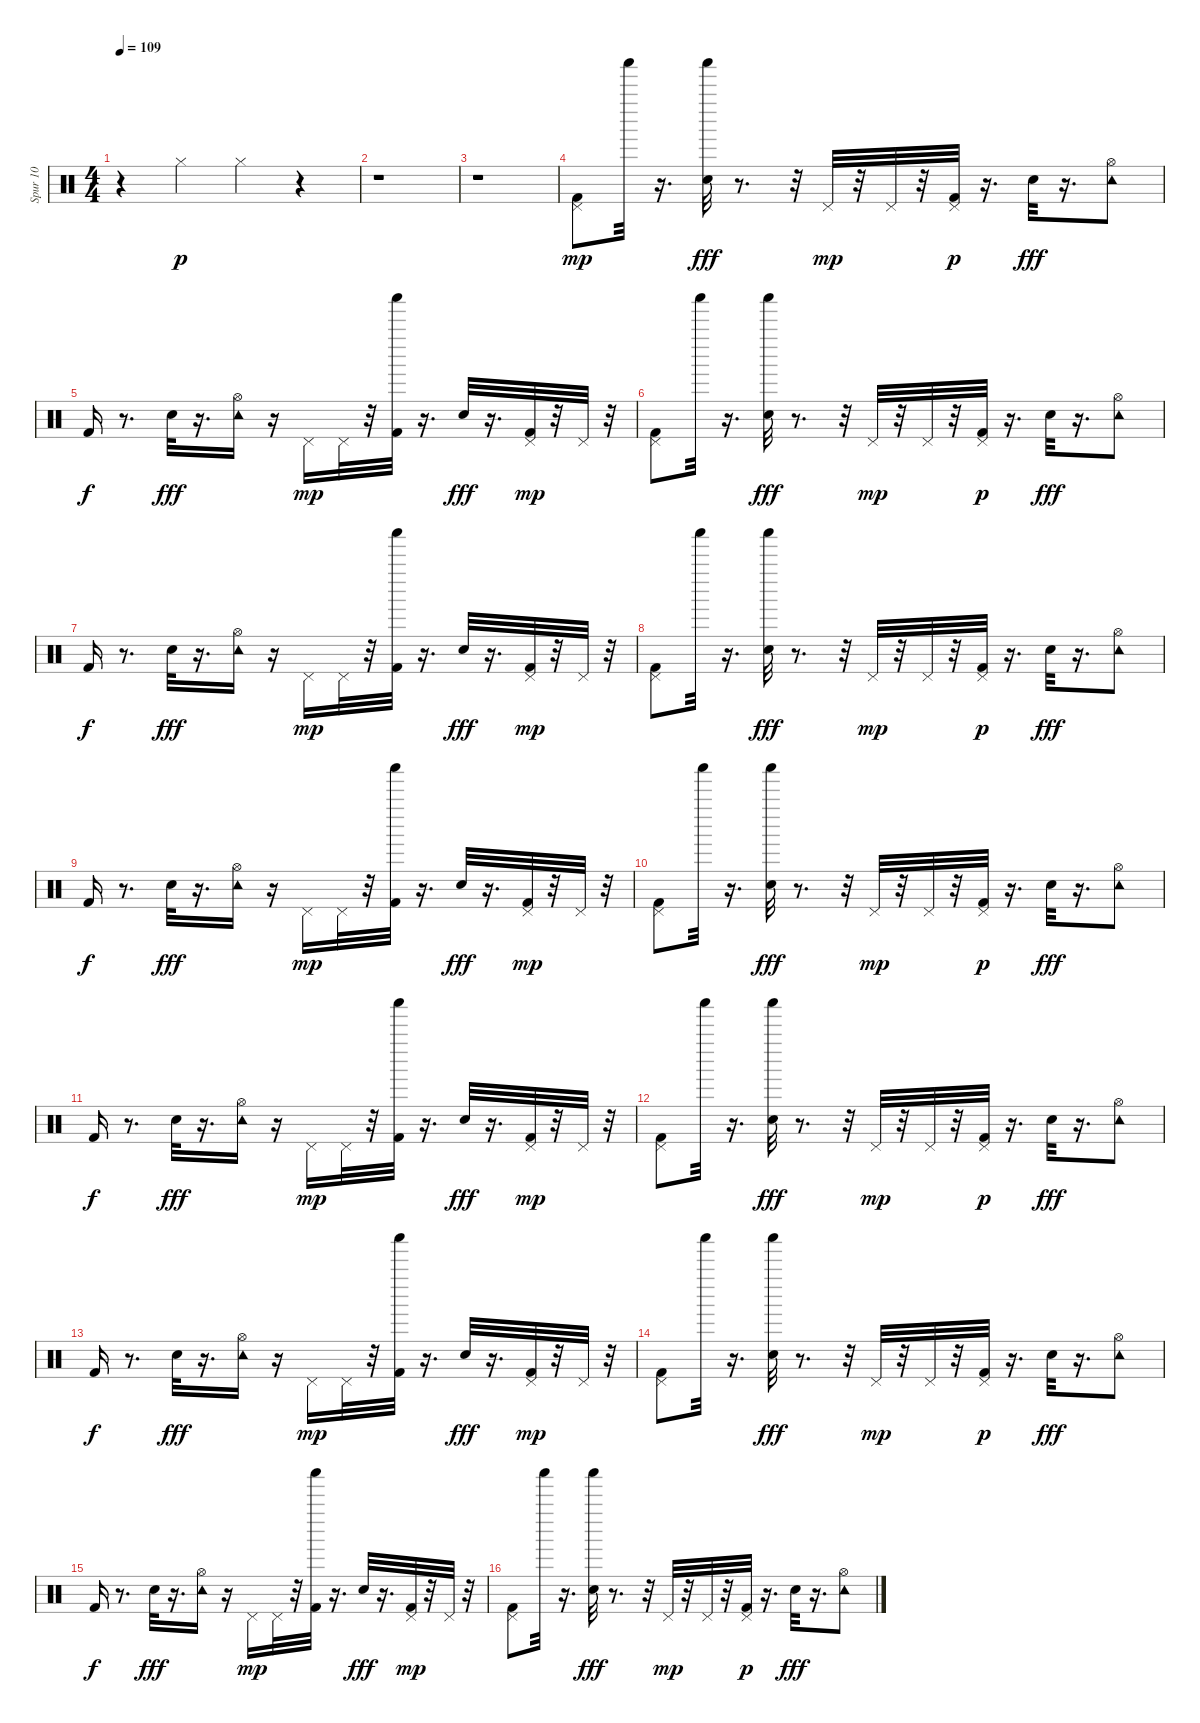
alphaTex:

\track ("Spur 10" "Spur 10") {instrument percussion}
\staff {score}
\articulation defaults
\ts (4 4)
\tempo 109
\clef neutral
\ks c
r.4{dy p} "Hi-Hat (closed)".4{volume 14} "Hi-Hat (closed)".4 r.4 |
r.1 |
r.1 |
("Pedal Hi-Hat (hit)" "Kick (hit) 2").8{dy mp} "Shaker (hit)".32 r.16{d} ("Shaker (hit)" "Electric Snare (hit)").32{dy fff} r.8{d} r.32 "Pedal Hi-Hat (hit)".32{dy mp} r.32 "Pedal Hi-Hat (hit)".32 r.32 ("Pedal Hi-Hat (hit)" "Kick (hit) 2").32{dy p} r.16{d} "Electric Snare (hit)".32{dy fff} r.16{d} ("Hi-Hat (open)" "Tambourine (hit)").8 |
"Kick (hit) 2".16{dy f} r.8{d} "Electric Snare (hit)".32{dy fff} r.16{d} ("Hi-Hat (open)" "Tambourine (hit)").16 r.16 "Pedal Hi-Hat (hit)".16{dy mp} "Pedal Hi-Hat (hit)".32 r.32 ("Shaker (hit)" "Kick (hit) 2").32 r.16{d} "Electric Snare (hit)".32{dy fff} r.16{d} ("Pedal Hi-Hat (hit)" "Kick (hit) 2").32{dy mp} r.32 "Pedal Hi-Hat (hit)".32 r.32 |
("Pedal Hi-Hat (hit)" "Kick (hit) 2").8 "Shaker (hit)".32 r.16{d} ("Shaker (hit)" "Electric Snare (hit)").32{dy fff} r.8{d} r.32 "Pedal Hi-Hat (hit)".32{dy mp} r.32 "Pedal Hi-Hat (hit)".32 r.32 ("Pedal Hi-Hat (hit)" "Kick (hit) 2").32{dy p} r.16{d} "Electric Snare (hit)".32{dy fff} r.16{d} ("Hi-Hat (open)" "Tambourine (hit)").8 |
"Kick (hit) 2".16{dy f} r.8{d} "Electric Snare (hit)".32{dy fff} r.16{d} ("Hi-Hat (open)" "Tambourine (hit)").16 r.16 "Pedal Hi-Hat (hit)".16{dy mp} "Pedal Hi-Hat (hit)".32 r.32 ("Shaker (hit)" "Kick (hit) 2").32 r.16{d} "Electric Snare (hit)".32{dy fff} r.16{d} ("Pedal Hi-Hat (hit)" "Kick (hit) 2").32{dy mp} r.32 "Pedal Hi-Hat (hit)".32 r.32 |
("Pedal Hi-Hat (hit)" "Kick (hit) 2").8 "Shaker (hit)".32 r.16{d} ("Shaker (hit)" "Electric Snare (hit)").32{dy fff} r.8{d} r.32 "Pedal Hi-Hat (hit)".32{dy mp} r.32 "Pedal Hi-Hat (hit)".32 r.32 ("Pedal Hi-Hat (hit)" "Kick (hit) 2").32{dy p} r.16{d} "Electric Snare (hit)".32{dy fff} r.16{d} ("Hi-Hat (open)" "Tambourine (hit)").8 |
"Kick (hit) 2".16{dy f} r.8{d} "Electric Snare (hit)".32{dy fff} r.16{d} ("Hi-Hat (open)" "Tambourine (hit)").16 r.16 "Pedal Hi-Hat (hit)".16{dy mp} "Pedal Hi-Hat (hit)".32 r.32 ("Shaker (hit)" "Kick (hit) 2").32 r.16{d} "Electric Snare (hit)".32{dy fff} r.16{d} ("Pedal Hi-Hat (hit)" "Kick (hit) 2").32{dy mp} r.32 "Pedal Hi-Hat (hit)".32 r.32 |
("Pedal Hi-Hat (hit)" "Kick (hit) 2").8 "Shaker (hit)".32 r.16{d} ("Shaker (hit)" "Electric Snare (hit)").32{dy fff} r.8{d} r.32 "Pedal Hi-Hat (hit)".32{dy mp} r.32 "Pedal Hi-Hat (hit)".32 r.32 ("Pedal Hi-Hat (hit)" "Kick (hit) 2").32{dy p} r.16{d} "Electric Snare (hit)".32{dy fff} r.16{d} ("Hi-Hat (open)" "Tambourine (hit)").8 |
"Kick (hit) 2".16{dy f} r.8{d} "Electric Snare (hit)".32{dy fff} r.16{d} ("Hi-Hat (open)" "Tambourine (hit)").16 r.16 "Pedal Hi-Hat (hit)".16{dy mp} "Pedal Hi-Hat (hit)".32 r.32 ("Shaker (hit)" "Kick (hit) 2").32 r.16{d} "Electric Snare (hit)".32{dy fff} r.16{d} ("Pedal Hi-Hat (hit)" "Kick (hit) 2").32{dy mp} r.32 "Pedal Hi-Hat (hit)".32 r.32 |
("Pedal Hi-Hat (hit)" "Kick (hit) 2").8 "Shaker (hit)".32 r.16{d} ("Shaker (hit)" "Electric Snare (hit)").32{dy fff} r.8{d} r.32 "Pedal Hi-Hat (hit)".32{dy mp} r.32 "Pedal Hi-Hat (hit)".32 r.32 ("Pedal Hi-Hat (hit)" "Kick (hit) 2").32{dy p} r.16{d} "Electric Snare (hit)".32{dy fff} r.16{d} ("Hi-Hat (open)" "Tambourine (hit)").8 |
"Kick (hit) 2".16{dy f} r.8{d} "Electric Snare (hit)".32{dy fff} r.16{d} ("Hi-Hat (open)" "Tambourine (hit)").16 r.16 "Pedal Hi-Hat (hit)".16{dy mp} "Pedal Hi-Hat (hit)".32 r.32 ("Shaker (hit)" "Kick (hit) 2").32 r.16{d} "Electric Snare (hit)".32{dy fff} r.16{d} ("Pedal Hi-Hat (hit)" "Kick (hit) 2").32{dy mp} r.32 "Pedal Hi-Hat (hit)".32 r.32 |
("Pedal Hi-Hat (hit)" "Kick (hit) 2").8 "Shaker (hit)".32 r.16{d} ("Shaker (hit)" "Electric Snare (hit)").32{dy fff} r.8{d} r.32 "Pedal Hi-Hat (hit)".32{dy mp} r.32 "Pedal Hi-Hat (hit)".32 r.32 ("Pedal Hi-Hat (hit)" "Kick (hit) 2").32{dy p} r.16{d} "Electric Snare (hit)".32{dy fff} r.16{d} ("Hi-Hat (open)" "Tambourine (hit)").8 |
"Kick (hit) 2".16{dy f} r.8{d} "Electric Snare (hit)".32{dy fff} r.16{d} ("Hi-Hat (open)" "Tambourine (hit)").16 r.16 "Pedal Hi-Hat (hit)".16{dy mp} "Pedal Hi-Hat (hit)".32 r.32 ("Shaker (hit)" "Kick (hit) 2").32 r.16{d} "Electric Snare (hit)".32{dy fff} r.16{d} ("Pedal Hi-Hat (hit)" "Kick (hit) 2").32{dy mp} r.32 "Pedal Hi-Hat (hit)".32 r.32 |
("Pedal Hi-Hat (hit)" "Kick (hit) 2").8 "Shaker (hit)".32 r.16{d} ("Shaker (hit)" "Electric Snare (hit)").32{dy fff} r.8{d} r.32 "Pedal Hi-Hat (hit)".32{dy mp} r.32 "Pedal Hi-Hat (hit)".32 r.32 ("Pedal Hi-Hat (hit)" "Kick (hit) 2").32{dy p} r.16{d} "Electric Snare (hit)".32{dy fff} r.16{d} ("Hi-Hat (open)" "Tambourine (hit)").8
